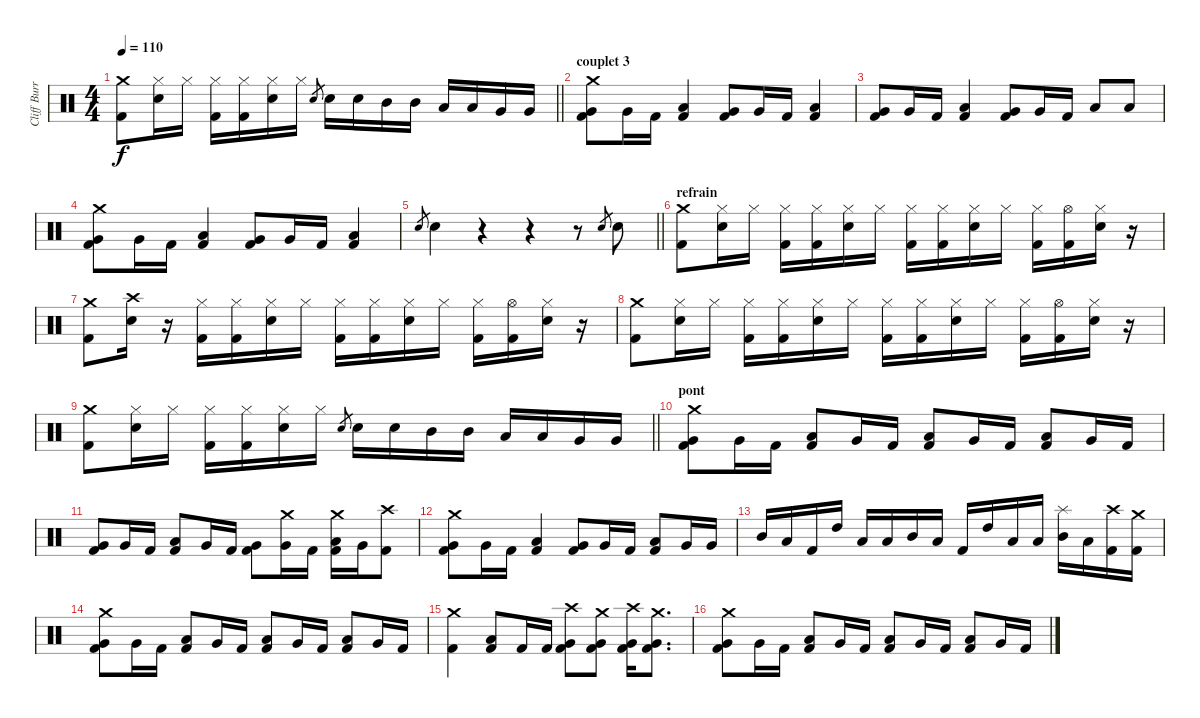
\track ("Cliff Burr" "Cliff Burr") {instrument percussion}
\staff {score}
\articulation defaults
\ts (4 4)
\tempo 110
\clef neutral
\barLineRight lightlight
\ks c
("Crash medium (hit)" "Kick (hit) 2").8{dy f} ("Hi-Hat (closed)" "Electric Snare (hit)").16 "Hi-Hat (closed)".16 ("Hi-Hat (closed)" "Kick (hit) 2").16 ("Hi-Hat (closed)" "Kick (hit) 2").16 ("Hi-Hat (closed)" "Electric Snare (hit)").16 "Hi-Hat (closed)".16 "Electric Snare (hit)".8{gr} "Electric Snare (hit)".16 "Electric Snare (hit)".16 "Mid Tom (hit)".16 "Mid Tom (hit)".16 "Low Tom (hit)".16 "Low Tom (hit)".16 "Very Low Tom (hit)".16 "Very Low Tom (hit)".16 |
\section ("" "couplet 3")
("Crash medium (hit)" "Very Low Tom (hit)" "Kick (hit) 2").8 "Very Low Tom (hit)".16 "Kick (hit) 2".16 ("Low Tom (hit)" "Kick (hit) 2").4 ("Very Low Tom (hit)" "Kick (hit) 2").8 "Very Low Tom (hit)".16 "Kick (hit) 2".16 ("Low Tom (hit)" "Kick (hit) 2").4 |
("Very Low Tom (hit)" "Kick (hit) 2").8 "Very Low Tom (hit)".16 "Kick (hit) 2".16 ("Low Tom (hit)" "Kick (hit) 2").4 ("Very Low Tom (hit)" "Kick (hit) 2").8 "Very Low Tom (hit)".16 "Kick (hit) 2".16 "Low Tom (hit)".8 "Low Tom (hit)".8 |
("Crash medium (hit)" "Very Low Tom (hit)" "Kick (hit) 2").8 "Very Low Tom (hit)".16 "Kick (hit) 2".16 ("Low Tom (hit)" "Kick (hit) 2").4 ("Very Low Tom (hit)" "Kick (hit) 2").8 "Very Low Tom (hit)".16 "Kick (hit) 2".16 ("Low Tom (hit)" "Kick (hit) 2").4 |
\barLineRight lightlight "Electric Snare (hit)".8{gr} "Electric Snare (hit)".4
r.4 r.4 r.8 "Electric Snare (hit)".8{gr} "Electric Snare (hit)".8 |
\section ("" "refrain")
("Crash medium (hit)" "Kick (hit) 2").8 ("Hi-Hat (closed)" "Electric Snare (hit)").16 "Hi-Hat (closed)".16 ("Hi-Hat (closed)" "Kick (hit) 2").16 ("Hi-Hat (closed)" "Kick (hit) 2").16 ("Hi-Hat (closed)" "Electric Snare (hit)").16 "Hi-Hat (closed)".16 ("Hi-Hat (closed)" "Kick (hit) 2").16 ("Hi-Hat (closed)" "Kick (hit) 2").16 ("Hi-Hat (closed)" "Electric Snare (hit)").16 "Hi-Hat (closed)".16 ("Hi-Hat (closed)" "Kick (hit) 2").16 ("Hi-Hat (open)" "Kick (hit) 2").16 ("Hi-Hat (closed)" "Electric Snare (hit)").16 r.16 |
("Crash medium (hit)" "Kick (hit) 2").8 ("Crash high (hit)" "Electric Snare (hit)").16 r.16 ("Hi-Hat (closed)" "Kick (hit) 2").16 ("Hi-Hat (closed)" "Kick (hit) 2").16 ("Hi-Hat (closed)" "Electric Snare (hit)").16 "Hi-Hat (closed)".16 ("Hi-Hat (closed)" "Kick (hit) 2").16 ("Hi-Hat (closed)" "Kick (hit) 2").16 ("Hi-Hat (closed)" "Electric Snare (hit)").16 "Hi-Hat (closed)".16 ("Hi-Hat (closed)" "Kick (hit) 2").16 ("Hi-Hat (open)" "Kick (hit) 2").16 ("Hi-Hat (closed)" "Electric Snare (hit)").16 r.16 |
("Crash medium (hit)" "Kick (hit) 2").8 ("Hi-Hat (closed)" "Electric Snare (hit)").16 "Hi-Hat (closed)".16 ("Hi-Hat (closed)" "Kick (hit) 2").16 ("Hi-Hat (closed)" "Kick (hit) 2").16 ("Hi-Hat (closed)" "Electric Snare (hit)").16 "Hi-Hat (closed)".16 ("Hi-Hat (closed)" "Kick (hit) 2").16 ("Hi-Hat (closed)" "Kick (hit) 2").16 ("Hi-Hat (closed)" "Electric Snare (hit)").16 "Hi-Hat (closed)".16 ("Hi-Hat (closed)" "Kick (hit) 2").16 ("Hi-Hat (open)" "Kick (hit) 2").16 ("Hi-Hat (closed)" "Electric Snare (hit)").16 r.16 |
\barLineRight lightlight
("Crash medium (hit)" "Kick (hit) 2").8 ("Hi-Hat (closed)" "Electric Snare (hit)").16 "Hi-Hat (closed)".16 ("Hi-Hat (closed)" "Kick (hit) 2").16 ("Hi-Hat (closed)" "Kick (hit) 2").16 ("Hi-Hat (closed)" "Electric Snare (hit)").16 "Hi-Hat (closed)".16 "Electric Snare (hit)".8{gr} "Electric Snare (hit)".16 "Electric Snare (hit)".16 "Mid Tom (hit)".16 "Mid Tom (hit)".16 "Low Tom (hit)".16 "Low Tom (hit)".16 "Very Low Tom (hit)".16 "Very Low Tom (hit)".16 |
\section ("" "pont")
("Crash medium (hit)" "Very Low Tom (hit)" "Kick (hit) 2").8 "Very Low Tom (hit)".16 "Kick (hit) 2".16 ("Low Tom (hit)" "Kick (hit) 2").8 "Very Low Tom (hit)".16 "Kick (hit) 2".16 ("Low Tom (hit)" "Kick (hit) 2").8 "Very Low Tom (hit)".16 "Kick (hit) 2".16 ("Low Tom (hit)" "Kick (hit) 2").8 "Very Low Tom (hit)".16 "Kick (hit) 2".16 |
("Very Low Tom (hit)" "Kick (hit) 2").8 "Very Low Tom (hit)".16 "Kick (hit) 2".16 ("Low Tom (hit)" "Kick (hit) 2").8 "Very Low Tom (hit)".16 "Kick (hit) 2".16 ("Very Low Tom (hit)" "Kick (hit) 2").8 ("Crash medium (hit)" "Very Low Tom (hit)").16 "Kick (hit) 2".16 ("Crash medium (hit)" "Low Tom (hit)" "Kick (hit) 2").16 "Very Low Tom (hit)".16 ("Crash high (hit)" "Kick (hit) 2").8 |
("Crash medium (hit)" "Very Low Tom (hit)" "Kick (hit) 2").8 "Very Low Tom (hit)".16 "Kick (hit) 2".16 ("Low Tom (hit)" "Kick (hit) 2").4 ("Very Low Tom (hit)" "Kick (hit) 2").8 "Very Low Tom (hit)".16 "Kick (hit) 2".16 ("Low Tom (hit)" "Kick (hit) 2").8 "Very Low Tom (hit)".16 "Very Low Tom (hit)".16 |
"Mid Tom (hit)".16 "Low Tom (hit)".16 "Kick (hit) 2".16 "High Tom (hit)".16 "Low Tom (hit)".16 "Low Tom (hit)".16 "Mid Tom (hit)".16 "Low Tom (hit)".16 "Kick (hit) 2".16 "High Tom (hit)".16 "Low Tom (hit)".16 "Low Tom (hit)".16 ("Splash (hit)" "Mid Tom (hit)").16 "Low Tom (hit)".16 ("Crash high (hit)" "Kick (hit) 2").16 ("Crash medium (hit)" "Kick (hit) 2").16 |
("Crash medium (hit)" "Very Low Tom (hit)" "Kick (hit) 2").8 "Very Low Tom (hit)".16 "Kick (hit) 2".16 ("Low Tom (hit)" "Kick (hit) 2").8 "Very Low Tom (hit)".16 "Kick (hit) 2".16 ("Low Tom (hit)" "Kick (hit) 2").8 "Very Low Tom (hit)".16 "Kick (hit) 2".16 ("Low Tom (hit)" "Kick (hit) 2").8 "Very Low Tom (hit)".16 "Kick (hit) 2".16 |
("Crash medium (hit)" "Kick (hit) 2").4 ("Low Tom (hit)" "Kick (hit) 2").8 "Kick (hit) 2".16 "Kick (hit) 2".16 ("Crash high (hit)" "Very Low Tom (hit)" "Kick (hit) 2").8 ("Crash medium (hit)" "Very Low Tom (hit)" "Kick (hit) 2").8 ("Crash high (hit)" "Very Low Tom (hit)" "Kick (hit) 2").16 ("Crash medium (hit)" "Very Low Tom (hit)" "Kick (hit) 2").8{d} |
("Crash medium (hit)" "Very Low Tom (hit)" "Kick (hit) 2").8 "Very Low Tom (hit)".16 "Kick (hit) 2".16 ("Low Tom (hit)" "Kick (hit) 2").8 "Very Low Tom (hit)".16 "Kick (hit) 2".16 ("Low Tom (hit)" "Kick (hit) 2").8 "Very Low Tom (hit)".16 "Kick (hit) 2".16 ("Low Tom (hit)" "Kick (hit) 2").8 "Very Low Tom (hit)".16 "Kick (hit) 2".16
